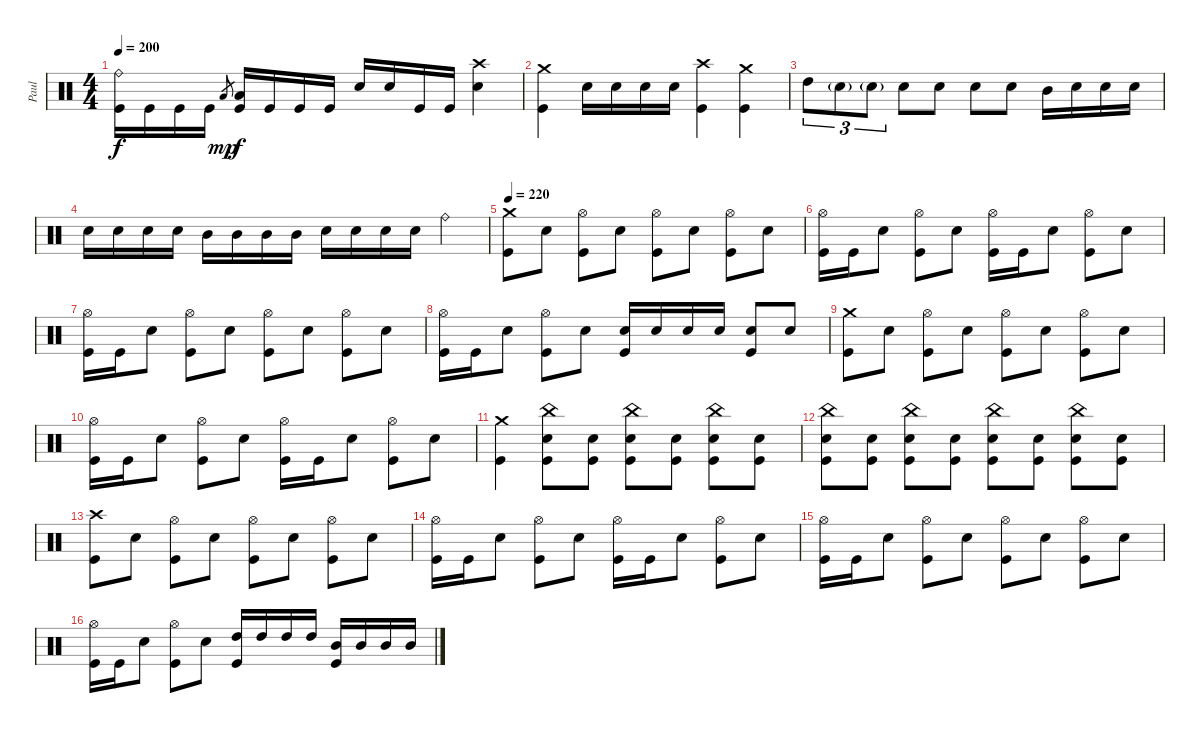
\track ("Paul" "Paul") {instrument percussion}
\staff {score}
\articulation defaults
\ts (4 4)
\tempo 200
\clef neutral
\ks c
("Ride (bell)" "Kick (hit)").16{dy f} "Kick (hit)".16 "Kick (hit)".16 "Kick (hit)".16 "Low Floor Tom (hit)".8{gr dy mp} ("Low Floor Tom (hit)" "Kick (hit)").16{dy f} "Kick (hit)".16 "Kick (hit)".16 "Kick (hit)".16 "Electric Snare (hit)".16 "Electric Snare (hit)".16 "Kick (hit)".16 "Kick (hit)".16 ("Crash high (hit)" "Electric Snare (hit)").4 |
("Crash medium (hit)" "Kick (hit)").4 "Electric Snare (hit)".16 "Electric Snare (hit)".16 "Electric Snare (hit)".16 "Electric Snare (hit)".16 ("Crash high (hit)" "Kick (hit)").4 ("Crash medium (hit)" "Kick (hit)").4 |
"High Tom (hit)".8{tu (3 2)} "Electric Snare (hit)"{g}.8{tu (3 2)} "Electric Snare (hit)"{g}.8{tu (3 2)} "Electric Snare (hit)".8 "Electric Snare (hit)".8 "Electric Snare (hit)".8 "Electric Snare (hit)".8 "Mid Tom (hit)".16 "Electric Snare (hit)".16 "Electric Snare (hit)".16 "Electric Snare (hit)".16 |
"Electric Snare (hit)".16 "Electric Snare (hit)".16 "Electric Snare (hit)".16 "Electric Snare (hit)".16 "Mid Tom (hit)".16 "Mid Tom (hit)".16 "Mid Tom (hit)".16 "Mid Tom (hit)".16 "Electric Snare (hit)".16 "Electric Snare (hit)".16 "Electric Snare (hit)".16 "Electric Snare (hit)".16 "Ride (bell)".4 |
\tempo 220
("Crash medium (hit)" "Kick (hit)").8 "Electric Snare (hit)".8 ("Hi-Hat (open)" "Kick (hit)").8 "Electric Snare (hit)".8 ("Hi-Hat (open)" "Kick (hit)").8 "Electric Snare (hit)".8 ("Hi-Hat (open)" "Kick (hit)").8 "Electric Snare (hit)".8 |
("Hi-Hat (open)" "Kick (hit)").16 "Kick (hit)".16 "Electric Snare (hit)".8 ("Hi-Hat (open)" "Kick (hit)").8 "Electric Snare (hit)".8 ("Hi-Hat (open)" "Kick (hit)").16 "Kick (hit)".16 "Electric Snare (hit)".8 ("Hi-Hat (open)" "Kick (hit)").8 "Electric Snare (hit)".8 |
("Hi-Hat (open)" "Kick (hit)").16 "Kick (hit)".16 "Electric Snare (hit)".8 ("Hi-Hat (open)" "Kick (hit)").8 "Electric Snare (hit)".8 ("Hi-Hat (open)" "Kick (hit)").8 "Electric Snare (hit)".8 ("Hi-Hat (open)" "Kick (hit)").8 "Electric Snare (hit)".8 |
("Hi-Hat (open)" "Kick (hit)").16 "Kick (hit)".16 "Electric Snare (hit)".8 ("Hi-Hat (open)" "Kick (hit)").8 "Electric Snare (hit)".8 ("Electric Snare (hit)" "Kick (hit)").16 "Electric Snare (hit)".16 "Electric Snare (hit)".16 "Electric Snare (hit)".16 ("Electric Snare (hit)" "Kick (hit)").8 "Electric Snare (hit)".8 |
("Crash medium (hit)" "Kick (hit)").8 "Electric Snare (hit)".8 ("Hi-Hat (open)" "Kick (hit)").8 "Electric Snare (hit)".8 ("Hi-Hat (open)" "Kick (hit)").8 "Electric Snare (hit)".8 ("Hi-Hat (open)" "Kick (hit)").8 "Electric Snare (hit)".8 |
("Hi-Hat (open)" "Kick (hit)").16 "Kick (hit)".16 "Electric Snare (hit)".8 ("Hi-Hat (open)" "Kick (hit)").8 "Electric Snare (hit)".8 ("Hi-Hat (open)" "Kick (hit)").16 "Kick (hit)".16 "Electric Snare (hit)".8 ("Hi-Hat (open)" "Kick (hit)").8 "Electric Snare (hit)".8 |
("Crash medium (hit)" "Kick (hit)").4 ("China (hit)" "Electric Snare (hit)" "Kick (hit)").8 ("Electric Snare (hit)" "Kick (hit)").8 ("China (hit)" "Electric Snare (hit)" "Kick (hit)").8 ("Electric Snare (hit)" "Kick (hit)").8 ("China (hit)" "Electric Snare (hit)" "Kick (hit)").8 ("Electric Snare (hit)" "Kick (hit)").8 |
("China (hit)" "Electric Snare (hit)" "Kick (hit)").8 ("Electric Snare (hit)" "Kick (hit)").8 ("China (hit)" "Electric Snare (hit)" "Kick (hit)").8 ("Electric Snare (hit)" "Kick (hit)").8 ("China (hit)" "Electric Snare (hit)" "Kick (hit)").8 ("Electric Snare (hit)" "Kick (hit)").8 ("China (hit)" "Electric Snare (hit)" "Kick (hit)").8 ("Electric Snare (hit)" "Kick (hit)").8 |
("Crash high (hit)" "Kick (hit)").8 "Electric Snare (hit)".8 ("Hi-Hat (open)" "Kick (hit)").8 "Electric Snare (hit)".8 ("Hi-Hat (open)" "Kick (hit)").8 "Electric Snare (hit)".8 ("Hi-Hat (open)" "Kick (hit)").8 "Electric Snare (hit)".8 |
("Hi-Hat (open)" "Kick (hit)").16 "Kick (hit)".16 "Electric Snare (hit)".8 ("Hi-Hat (open)" "Kick (hit)").8 "Electric Snare (hit)".8 ("Hi-Hat (open)" "Kick (hit)").16 "Kick (hit)".16 "Electric Snare (hit)".8 ("Hi-Hat (open)" "Kick (hit)").8 "Electric Snare (hit)".8 |
("Hi-Hat (open)" "Kick (hit)").16 "Kick (hit)".16 "Electric Snare (hit)".8 ("Hi-Hat (open)" "Kick (hit)").8 "Electric Snare (hit)".8 ("Hi-Hat (open)" "Kick (hit)").8 "Electric Snare (hit)".8 ("Hi-Hat (open)" "Kick (hit)").8 "Electric Snare (hit)".8 |
("Hi-Hat (open)" "Kick (hit)").16 "Kick (hit)".16 "Electric Snare (hit)".8 ("Hi-Hat (open)" "Kick (hit)").8 "Electric Snare (hit)".8 ("High Tom (hit)" "Kick (hit)").16 "High Tom (hit)".16 "High Tom (hit)".16 "High Tom (hit)".16 ("Mid Tom (hit)" "Kick (hit)").16 "Mid Tom (hit)".16 "Mid Tom (hit)".16 "Mid Tom (hit)".16
